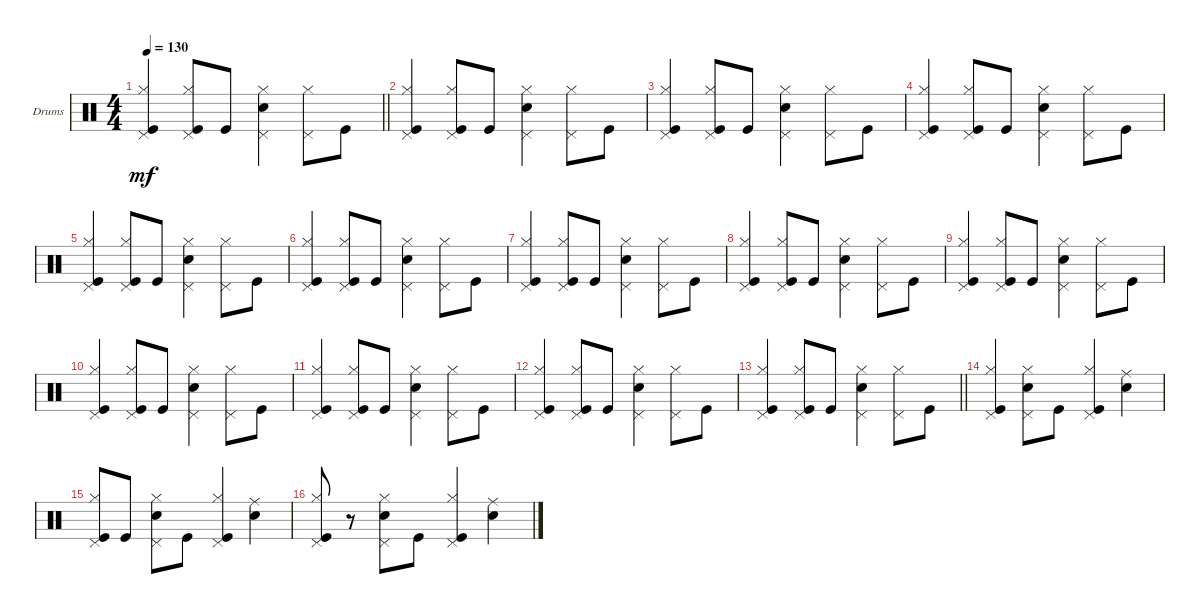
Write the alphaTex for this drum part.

\defaultSystemsLayout 4
\bracketExtendMode groupsimilarinstruments
\firstSystemTrackNameOrientation horizontal
\otherSystemsTrackNameOrientation horizontal
\chordDiagramsInScore
\track ("Drumkit" "Drums") {instrument percussion}
\staff {score}
\articulation defaults
\ts (4 4)
\tempo 130
\clef neutral
\barLineRight lightlight
\ks c
("Kick (hit)" "Hi-Hat (closed)" "Pedal Hi-Hat (hit)").4{dy mf} ("Kick (hit)" "Hi-Hat (closed)" "Pedal Hi-Hat (hit)").8 "Kick (hit)".8 ("Snare (hit) 2" "Hi-Hat (closed)" "Pedal Hi-Hat (hit)").4 ("Pedal Hi-Hat (hit)" "Hi-Hat (closed)").8 "Kick (hit)".8 |
("Kick (hit)" "Hi-Hat (closed)" "Pedal Hi-Hat (hit)").4 ("Kick (hit)" "Hi-Hat (closed)" "Pedal Hi-Hat (hit)").8 "Kick (hit)".8 ("Snare (hit) 2" "Hi-Hat (closed)" "Pedal Hi-Hat (hit)").4 ("Pedal Hi-Hat (hit)" "Hi-Hat (closed)").8 "Kick (hit)".8 |
("Kick (hit)" "Hi-Hat (closed)" "Pedal Hi-Hat (hit)").4 ("Kick (hit)" "Hi-Hat (closed)" "Pedal Hi-Hat (hit)").8 "Kick (hit)".8 ("Snare (hit) 2" "Hi-Hat (closed)" "Pedal Hi-Hat (hit)").4 ("Pedal Hi-Hat (hit)" "Hi-Hat (closed)").8 "Kick (hit)".8 |
("Kick (hit)" "Hi-Hat (closed)" "Pedal Hi-Hat (hit)").4 ("Kick (hit)" "Hi-Hat (closed)" "Pedal Hi-Hat (hit)").8 "Kick (hit)".8 ("Snare (hit) 2" "Hi-Hat (closed)" "Pedal Hi-Hat (hit)").4 ("Pedal Hi-Hat (hit)" "Hi-Hat (closed)").8 "Kick (hit)".8 |
("Kick (hit)" "Hi-Hat (closed)" "Pedal Hi-Hat (hit)").4 ("Kick (hit)" "Hi-Hat (closed)" "Pedal Hi-Hat (hit)").8 "Kick (hit)".8 ("Snare (hit) 2" "Hi-Hat (closed)" "Pedal Hi-Hat (hit)").4 ("Pedal Hi-Hat (hit)" "Hi-Hat (closed)").8 "Kick (hit)".8 |
("Kick (hit)" "Hi-Hat (closed)" "Pedal Hi-Hat (hit)").4 ("Kick (hit)" "Hi-Hat (closed)" "Pedal Hi-Hat (hit)").8 "Kick (hit)".8 ("Snare (hit) 2" "Hi-Hat (closed)" "Pedal Hi-Hat (hit)").4 ("Pedal Hi-Hat (hit)" "Hi-Hat (closed)").8 "Kick (hit)".8 |
("Kick (hit)" "Hi-Hat (closed)" "Pedal Hi-Hat (hit)").4 ("Kick (hit)" "Hi-Hat (closed)" "Pedal Hi-Hat (hit)").8 "Kick (hit)".8 ("Snare (hit) 2" "Hi-Hat (closed)" "Pedal Hi-Hat (hit)").4 ("Pedal Hi-Hat (hit)" "Hi-Hat (closed)").8 "Kick (hit)".8 |
("Kick (hit)" "Hi-Hat (closed)" "Pedal Hi-Hat (hit)").4 ("Kick (hit)" "Hi-Hat (closed)" "Pedal Hi-Hat (hit)").8 "Kick (hit)".8 ("Snare (hit) 2" "Hi-Hat (closed)" "Pedal Hi-Hat (hit)").4 ("Pedal Hi-Hat (hit)" "Hi-Hat (closed)").8 "Kick (hit)".8 |
("Kick (hit)" "Hi-Hat (closed)" "Pedal Hi-Hat (hit)").4 ("Kick (hit)" "Hi-Hat (closed)" "Pedal Hi-Hat (hit)").8 "Kick (hit)".8 ("Snare (hit) 2" "Hi-Hat (closed)" "Pedal Hi-Hat (hit)").4 ("Pedal Hi-Hat (hit)" "Hi-Hat (closed)").8 "Kick (hit)".8 |
("Kick (hit)" "Hi-Hat (closed)" "Pedal Hi-Hat (hit)").4 ("Kick (hit)" "Hi-Hat (closed)" "Pedal Hi-Hat (hit)").8 "Kick (hit)".8 ("Snare (hit) 2" "Hi-Hat (closed)" "Pedal Hi-Hat (hit)").4 ("Pedal Hi-Hat (hit)" "Hi-Hat (closed)").8 "Kick (hit)".8 |
("Kick (hit)" "Hi-Hat (closed)" "Pedal Hi-Hat (hit)").4 ("Kick (hit)" "Hi-Hat (closed)" "Pedal Hi-Hat (hit)").8 "Kick (hit)".8 ("Snare (hit) 2" "Hi-Hat (closed)" "Pedal Hi-Hat (hit)").4 ("Pedal Hi-Hat (hit)" "Hi-Hat (closed)").8 "Kick (hit)".8 |
("Kick (hit)" "Hi-Hat (closed)" "Pedal Hi-Hat (hit)").4 ("Kick (hit)" "Hi-Hat (closed)" "Pedal Hi-Hat (hit)").8 "Kick (hit)".8 ("Snare (hit) 2" "Hi-Hat (closed)" "Pedal Hi-Hat (hit)").4 ("Pedal Hi-Hat (hit)" "Hi-Hat (closed)").8 "Kick (hit)".8 |
\barLineRight lightlight
("Kick (hit)" "Hi-Hat (closed)" "Pedal Hi-Hat (hit)").4 ("Kick (hit)" "Hi-Hat (closed)" "Pedal Hi-Hat (hit)").8 "Kick (hit)".8 ("Snare (hit) 2" "Hi-Hat (closed)" "Pedal Hi-Hat (hit)").4 ("Pedal Hi-Hat (hit)" "Hi-Hat (closed)").8 "Kick (hit)".8 |
("Kick (hit)" "Hi-Hat (closed)" "Pedal Hi-Hat (hit)").4 ("Hi-Hat (closed)" "Pedal Hi-Hat (hit)" "Snare (hit) 2").8 "Kick (hit)".8 ("Kick (hit)" "Pedal Hi-Hat (hit)" "Hi-Hat (closed)").4 ("Snare (hit) 2" "Ride (middle)").4 |
("Kick (hit)" "Hi-Hat (closed)" "Pedal Hi-Hat (hit)").8 "Kick (hit)".8 ("Hi-Hat (closed)" "Pedal Hi-Hat (hit)" "Snare (hit) 2").8 "Kick (hit)".8 ("Kick (hit)" "Pedal Hi-Hat (hit)" "Hi-Hat (closed)").4 ("Snare (hit) 2" "Ride (middle)").4 |
("Kick (hit)" "Hi-Hat (closed)" "Pedal Hi-Hat (hit)").8 r.8 ("Hi-Hat (closed)" "Pedal Hi-Hat (hit)" "Snare (hit) 2").8 "Kick (hit)".8 ("Kick (hit)" "Pedal Hi-Hat (hit)" "Hi-Hat (closed)").4 ("Snare (hit) 2" "Ride (middle)").4
